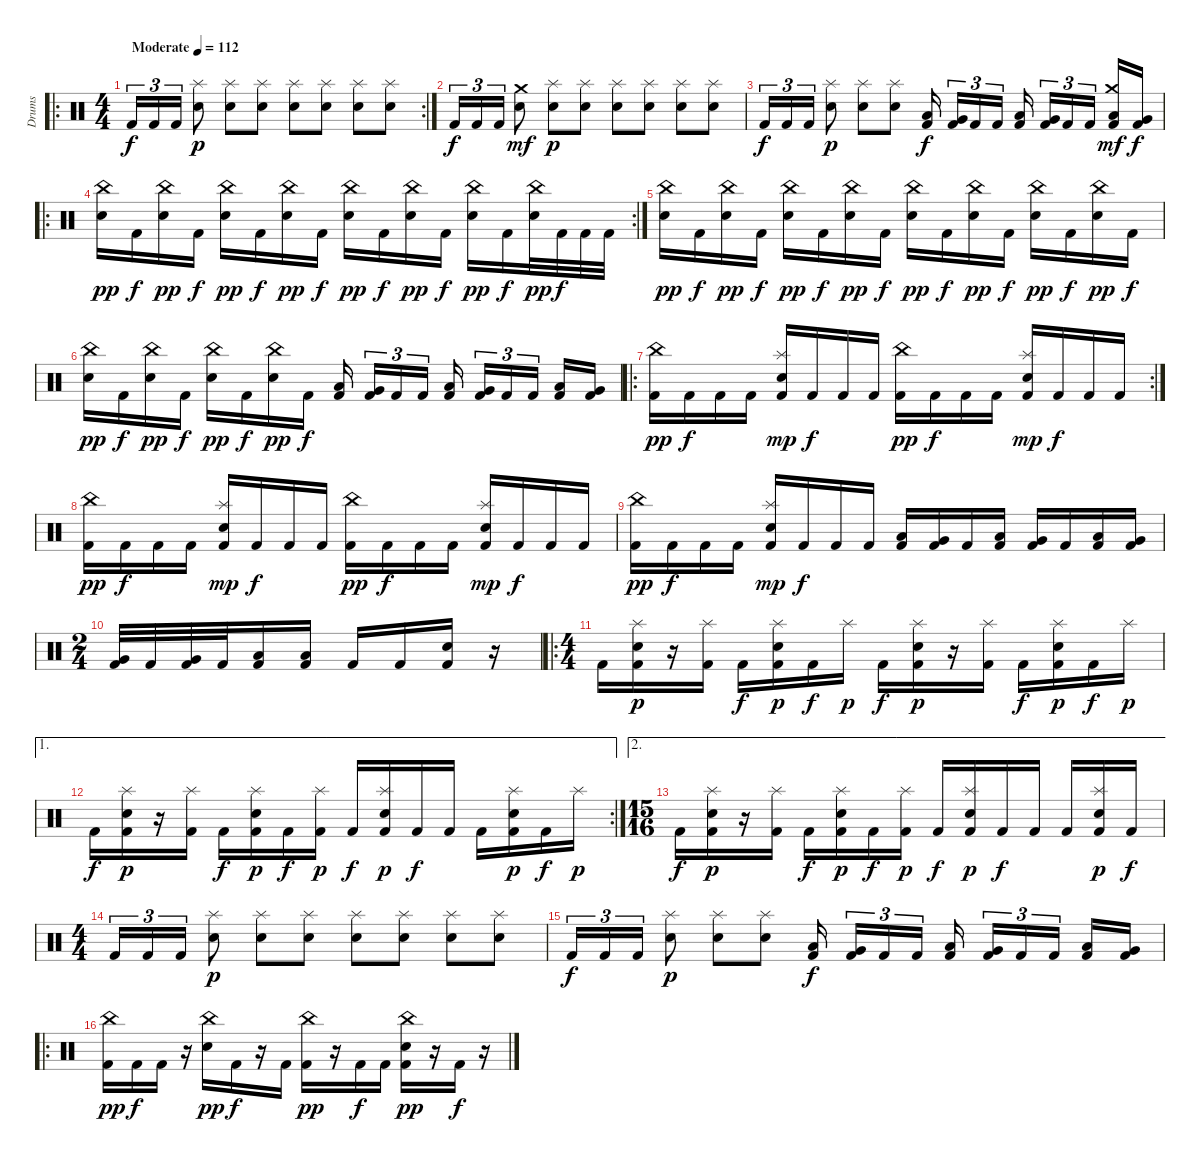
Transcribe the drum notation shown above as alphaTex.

\track ("Drums" "Drums") {instrument percussion}
\staff
\articulation defaults
\ro
\rc 2
\ts (4 4)
\tempo (112 "Moderate")
\clef neutral
\ks c "Kick (hit) 2".16{tu (3 2) dy f} "Kick (hit) 2".16{tu (3 2)} "Kick (hit) 2".16{tu (3 2)}
("Splash (hit)" "Snare (hit) 2").8{dy p} ("Splash (hit)" "Snare (hit) 2").8 ("Splash (hit)" "Snare (hit) 2").8 ("Splash (hit)" "Snare (hit) 2").8 ("Splash (hit)" "Snare (hit) 2").8 ("Splash (hit)" "Snare (hit) 2").8 ("Splash (hit)" "Snare (hit) 2").8 |
"Kick (hit) 2".16{tu (3 2) dy f} "Kick (hit) 2".16{tu (3 2)} "Kick (hit) 2".16{tu (3 2)} ("Crash medium (hit)" "Snare (hit) 2").8{dy mf} ("Splash (hit)" "Snare (hit) 2").8{dy p} ("Splash (hit)" "Snare (hit) 2").8 ("Splash (hit)" "Snare (hit) 2").8 ("Splash (hit)" "Snare (hit) 2").8 ("Splash (hit)" "Snare (hit) 2").8 ("Splash (hit)" "Snare (hit) 2").8 |
"Kick (hit) 2".16{tu (3 2) dy f} "Kick (hit) 2".16{tu (3 2)} "Kick (hit) 2".16{tu (3 2)} ("Splash (hit)" "Snare (hit) 2").8{dy p} ("Splash (hit)" "Snare (hit) 2").8 ("Splash (hit)" "Snare (hit) 2").8 ("Low Floor Tom (hit)" "Kick (hit) 2").16{dy f beam splitsecondary} ("Very Low Tom (hit)" "Kick (hit) 2").16{tu (3 2)} "Kick (hit) 2".16{tu (3 2)} "Kick (hit) 2".16{tu (3 2) beam splitsecondary} ("Low Floor Tom (hit)" "Kick (hit) 2").16 ("Very Low Tom (hit)" "Kick (hit) 2").16{tu (3 2)} "Kick (hit) 2".16{tu (3 2)} "Kick (hit) 2".16{tu (3 2) beam splitsecondary} ("Crash medium (hit)" "Low Floor Tom (hit)" "Kick (hit) 2").16{dy mf} ("Very Low Tom (hit)" "Kick (hit) 2").16{dy f} |
\ro
\rc 2
("China (hit)" "Snare (hit) 2").16{dy pp} "Kick (hit) 2".16{dy f} ("China (hit)" "Snare (hit) 2").16{dy pp} "Kick (hit) 2".16{dy f} ("China (hit)" "Snare (hit) 2").16{dy pp} "Kick (hit) 2".16{dy f} ("China (hit)" "Snare (hit) 2").16{dy pp} "Kick (hit) 2".16{dy f} ("China (hit)" "Snare (hit) 2").16{dy pp} "Kick (hit) 2".16{dy f} ("China (hit)" "Snare (hit) 2").16{dy pp} "Kick (hit) 2".16{dy f} ("China (hit)" "Snare (hit) 2").16{dy pp} "Kick (hit) 2".16{dy f} ("China (hit)" "Snare (hit) 2").32{dy pp} "Kick (hit) 2".32{dy f} "Kick (hit) 2".32 "Kick (hit) 2".32 |
("China (hit)" "Snare (hit) 2").16{dy pp} "Kick (hit) 2".16{dy f} ("China (hit)" "Snare (hit) 2").16{dy pp} "Kick (hit) 2".16{dy f} ("China (hit)" "Snare (hit) 2").16{dy pp} "Kick (hit) 2".16{dy f} ("China (hit)" "Snare (hit) 2").16{dy pp} "Kick (hit) 2".16{dy f} ("China (hit)" "Snare (hit) 2").16{dy pp} "Kick (hit) 2".16{dy f} ("China (hit)" "Snare (hit) 2").16{dy pp} "Kick (hit) 2".16{dy f} ("China (hit)" "Snare (hit) 2").16{dy pp} "Kick (hit) 2".16{dy f} ("China (hit)" "Snare (hit) 2").16{dy pp} "Kick (hit) 2".16{dy f} |
("China (hit)" "Snare (hit) 2").16{dy pp} "Kick (hit) 2".16{dy f} ("China (hit)" "Snare (hit) 2").16{dy pp} "Kick (hit) 2".16{dy f} ("China (hit)" "Snare (hit) 2").16{dy pp} "Kick (hit) 2".16{dy f} ("China (hit)" "Snare (hit) 2").16{dy pp} "Kick (hit) 2".16{dy f} ("Low Floor Tom (hit)" "Kick (hit) 2").16{beam splitsecondary} ("Very Low Tom (hit)" "Kick (hit) 2").16{tu (3 2)} "Kick (hit) 2".16{tu (3 2)} "Kick (hit) 2".16{tu (3 2) beam splitsecondary} ("Low Floor Tom (hit)" "Kick (hit) 2").16 ("Very Low Tom (hit)" "Kick (hit) 2").16{tu (3 2)} "Kick (hit) 2".16{tu (3 2)} "Kick (hit) 2".16{tu (3 2) beam splitsecondary} ("Low Floor Tom (hit)" "Kick (hit) 2").16 ("Very Low Tom (hit)" "Kick (hit) 2").16 |
\ro
\rc 2
("China (hit)" "Kick (hit) 2").16{dy pp} "Kick (hit) 2".16{dy f} "Kick (hit) 2".16 "Kick (hit) 2".16 ("Splash (hit)" "Snare (hit) 2" "Kick (hit) 2").16{dy mp} "Kick (hit) 2".16{dy f} "Kick (hit) 2".16 "Kick (hit) 2".16 ("China (hit)" "Kick (hit) 2").16{dy pp} "Kick (hit) 2".16{dy f} "Kick (hit) 2".16 "Kick (hit) 2".16 ("Splash (hit)" "Snare (hit) 2" "Kick (hit) 2").16{dy mp} "Kick (hit) 2".16{dy f} "Kick (hit) 2".16 "Kick (hit) 2".16 |
("China (hit)" "Kick (hit) 2").16{dy pp} "Kick (hit) 2".16{dy f} "Kick (hit) 2".16 "Kick (hit) 2".16 ("Splash (hit)" "Snare (hit) 2" "Kick (hit) 2").16{dy mp} "Kick (hit) 2".16{dy f} "Kick (hit) 2".16 "Kick (hit) 2".16 ("China (hit)" "Kick (hit) 2").16{dy pp} "Kick (hit) 2".16{dy f} "Kick (hit) 2".16 "Kick (hit) 2".16 ("Splash (hit)" "Snare (hit) 2" "Kick (hit) 2").16{dy mp} "Kick (hit) 2".16{dy f} "Kick (hit) 2".16 "Kick (hit) 2".16 |
("China (hit)" "Kick (hit) 2").16{dy pp} "Kick (hit) 2".16{dy f} "Kick (hit) 2".16 "Kick (hit) 2".16 ("Splash (hit)" "Snare (hit) 2" "Kick (hit) 2").16{dy mp} "Kick (hit) 2".16{dy f} "Kick (hit) 2".16 "Kick (hit) 2".16 ("Low Floor Tom (hit)" "Kick (hit) 2").16 ("Very Low Tom (hit)" "Kick (hit) 2").16 "Kick (hit) 2".16 ("Low Floor Tom (hit)" "Kick (hit) 2").16 ("Very Low Tom (hit)" "Kick (hit) 2").16 "Kick (hit) 2".16 ("Low Floor Tom (hit)" "Kick (hit) 2").16 ("Very Low Tom (hit)" "Kick (hit) 2").16 |
\ts (2 4)
("Very Low Tom (hit)" "Kick (hit) 2").32 "Kick (hit) 2".32 ("Very Low Tom (hit)" "Kick (hit) 2").32 "Kick (hit) 2".32 ("Low Floor Tom (hit)" "Kick (hit) 2").16 ("Low Floor Tom (hit)" "Kick (hit) 2").16 "Kick (hit) 2".16 "Kick (hit) 2".16 ("Snare (hit) 2" "Kick (hit) 2").16 r.16 |
\ro
\ts (4 4)
"Kick (hit) 2".16 ("Splash (hit)" "Snare (hit) 2" "Kick (hit) 2").16{dy p} r.16 ("Splash (hit)" "Kick (hit) 2").16 "Kick (hit) 2".16{dy f} ("Splash (hit)" "Snare (hit) 2" "Kick (hit) 2").16{dy p} "Kick (hit) 2".16{dy f} "Splash (hit)".16{dy p} "Kick (hit) 2".16{dy f} ("Splash (hit)" "Snare (hit) 2" "Kick (hit) 2").16{dy p} r.16 ("Splash (hit)" "Kick (hit) 2").16 "Kick (hit) 2".16{dy f} ("Splash (hit)" "Snare (hit) 2" "Kick (hit) 2").16{dy p} "Kick (hit) 2".16{dy f} "Splash (hit)".16{dy p} |
\ae 1
\rc 2 "Kick (hit) 2".16{dy f}
("Splash (hit)" "Snare (hit) 2" "Kick (hit) 2").16{dy p} r.16 ("Splash (hit)" "Kick (hit) 2").16 "Kick (hit) 2".16{dy f} ("Splash (hit)" "Snare (hit) 2" "Kick (hit) 2").16{dy p} "Kick (hit) 2".16{dy f} ("Splash (hit)" "Kick (hit) 2").16{dy p} "Kick (hit) 2".16{dy f} ("Splash (hit)" "Snare (hit) 2" "Kick (hit) 2").16{dy p} "Kick (hit) 2".16{dy f} "Kick (hit) 2".16 "Kick (hit) 2".16 ("Splash (hit)" "Snare (hit) 2" "Kick (hit) 2").16{dy p} "Kick (hit) 2".16{dy f} "Splash (hit)".16{dy p} |
\ae 2
\ts (15 16)
"Kick (hit) 2".16{dy f} ("Splash (hit)" "Snare (hit) 2" "Kick (hit) 2").16{dy p} r.16 ("Splash (hit)" "Kick (hit) 2").16 "Kick (hit) 2".16{dy f} ("Splash (hit)" "Snare (hit) 2" "Kick (hit) 2").16{dy p} "Kick (hit) 2".16{dy f} ("Splash (hit)" "Kick (hit) 2").16{dy p} "Kick (hit) 2".16{dy f} ("Splash (hit)" "Snare (hit) 2" "Kick (hit) 2").16{dy p} "Kick (hit) 2".16{dy f} "Kick (hit) 2".16 "Kick (hit) 2".16 ("Splash (hit)" "Snare (hit) 2" "Kick (hit) 2").16{dy p} "Kick (hit) 2".16{dy f} |
\ts (4 4)
"Kick (hit) 2".16{tu (3 2)} "Kick (hit) 2".16{tu (3 2)} "Kick (hit) 2".16{tu (3 2)} ("Splash (hit)" "Snare (hit) 2").8{dy p} ("Splash (hit)" "Snare (hit) 2").8 ("Splash (hit)" "Snare (hit) 2").8 ("Splash (hit)" "Snare (hit) 2").8 ("Splash (hit)" "Snare (hit) 2").8 ("Splash (hit)" "Snare (hit) 2").8 ("Splash (hit)" "Snare (hit) 2").8 |
"Kick (hit) 2".16{tu (3 2) dy f} "Kick (hit) 2".16{tu (3 2)} "Kick (hit) 2".16{tu (3 2)} ("Splash (hit)" "Snare (hit) 2").8{dy p} ("Splash (hit)" "Snare (hit) 2").8 ("Splash (hit)" "Snare (hit) 2").8 ("Low Floor Tom (hit)" "Kick (hit) 2").16{dy f beam splitsecondary} ("Very Low Tom (hit)" "Kick (hit) 2").16{tu (3 2)} "Kick (hit) 2".16{tu (3 2)} "Kick (hit) 2".16{tu (3 2) beam splitsecondary} ("Low Floor Tom (hit)" "Kick (hit) 2").16 ("Very Low Tom (hit)" "Kick (hit) 2").16{tu (3 2)} "Kick (hit) 2".16{tu (3 2)} "Kick (hit) 2".16{tu (3 2) beam splitsecondary} ("Low Floor Tom (hit)" "Kick (hit) 2").16 ("Very Low Tom (hit)" "Kick (hit) 2").16 |
\ro
("China (hit)" "Kick (hit) 2").16{dy pp} "Kick (hit) 2".16{dy f} "Kick (hit) 2".16 r.16 ("China (hit)" "Snare (hit) 2").16{dy pp} "Kick (hit) 2".16{dy f} r.16 "Kick (hit) 2".16 ("China (hit)" "Kick (hit) 2").16{dy pp} r.16 "Kick (hit) 2".16{dy f} "Kick (hit) 2".16 ("China (hit)" "Snare (hit) 2" "Kick (hit) 2").16{dy pp} r.16 "Kick (hit) 2".16{dy f} r.16
